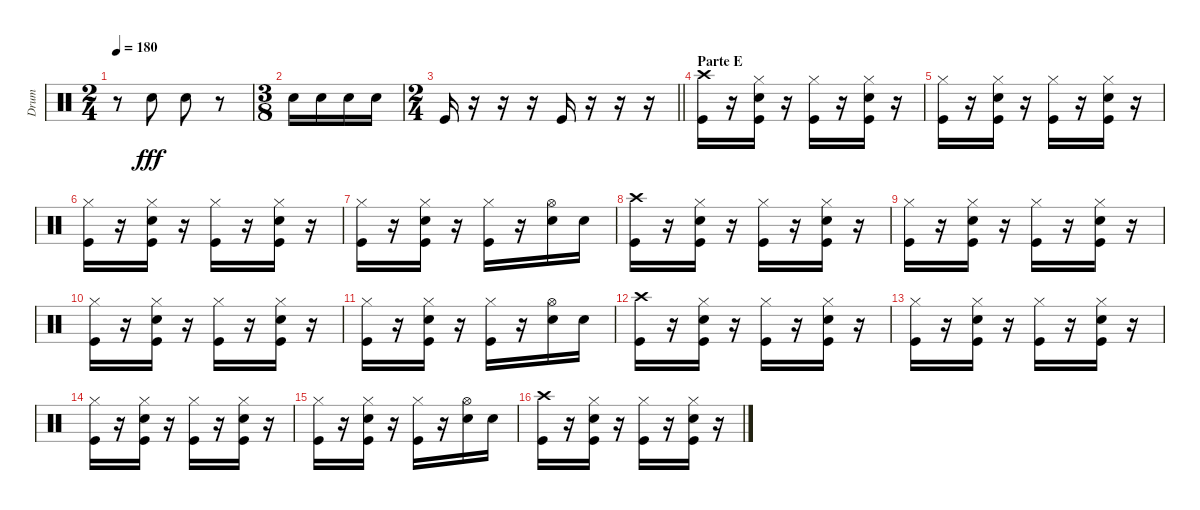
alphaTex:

\track ("Drum" "Drum") {instrument percussion}
\staff {score}
\articulation defaults
\ts (2 4)
\tempo 180
\clef neutral
\ks c
r.8{dy fff} "Snare (hit) 2".8 "Snare (hit) 2".8 r.8 |
\ts (3 8)
"Snare (hit) 2".16 "Snare (hit) 2".16 "Snare (hit) 2".16 "Snare (hit) 2".16 |
\ts (2 4)
\barLineRight lightlight "Kick (hit)".16
r.16 r.16 r.16 "Kick (hit)".16 r.16 r.16 r.16 |
\section ("" "Parte E")
("Crash high (hit)" "Kick (hit)").16 r.16 ("Hi-Hat (closed)" "Snare (hit) 2" "Kick (hit)").16 r.16 ("Hi-Hat (closed)" "Kick (hit)").16 r.16 ("Hi-Hat (closed)" "Snare (hit) 2" "Kick (hit)").16 r.16 |
("Hi-Hat (closed)" "Kick (hit)").16 r.16 ("Hi-Hat (closed)" "Snare (hit) 2" "Kick (hit)").16 r.16 ("Hi-Hat (closed)" "Kick (hit)").16 r.16 ("Hi-Hat (closed)" "Snare (hit) 2" "Kick (hit)").16 r.16 |
("Hi-Hat (closed)" "Kick (hit)").16 r.16 ("Hi-Hat (closed)" "Snare (hit) 2" "Kick (hit)").16 r.16 ("Hi-Hat (closed)" "Kick (hit)").16 r.16 ("Hi-Hat (closed)" "Snare (hit) 2" "Kick (hit)").16 r.16 |
("Hi-Hat (closed)" "Kick (hit)").16 r.16 ("Hi-Hat (closed)" "Snare (hit) 2" "Kick (hit)").16 r.16 ("Hi-Hat (closed)" "Kick (hit)").16 r.16 ("Hi-Hat (open)" "Snare (hit) 2").16 "Snare (hit) 2".16 |
("Crash high (hit)" "Kick (hit)").16 r.16 ("Hi-Hat (closed)" "Snare (hit) 2" "Kick (hit)").16 r.16 ("Hi-Hat (closed)" "Kick (hit)").16 r.16 ("Hi-Hat (closed)" "Snare (hit) 2" "Kick (hit)").16 r.16 |
("Hi-Hat (closed)" "Kick (hit)").16 r.16 ("Hi-Hat (closed)" "Snare (hit) 2" "Kick (hit)").16 r.16 ("Hi-Hat (closed)" "Kick (hit)").16 r.16 ("Hi-Hat (closed)" "Snare (hit) 2" "Kick (hit)").16 r.16 |
("Hi-Hat (closed)" "Kick (hit)").16 r.16 ("Hi-Hat (closed)" "Snare (hit) 2" "Kick (hit)").16 r.16 ("Hi-Hat (closed)" "Kick (hit)").16 r.16 ("Hi-Hat (closed)" "Snare (hit) 2" "Kick (hit)").16 r.16 |
("Hi-Hat (closed)" "Kick (hit)").16 r.16 ("Hi-Hat (closed)" "Snare (hit) 2" "Kick (hit)").16 r.16 ("Hi-Hat (closed)" "Kick (hit)").16 r.16 ("Hi-Hat (open)" "Snare (hit) 2").16 "Snare (hit) 2".16 |
("Crash high (hit)" "Kick (hit)").16 r.16 ("Hi-Hat (closed)" "Snare (hit) 2" "Kick (hit)").16 r.16 ("Hi-Hat (closed)" "Kick (hit)").16 r.16 ("Hi-Hat (closed)" "Snare (hit) 2" "Kick (hit)").16 r.16 |
("Hi-Hat (closed)" "Kick (hit)").16 r.16 ("Hi-Hat (closed)" "Snare (hit) 2" "Kick (hit)").16 r.16 ("Hi-Hat (closed)" "Kick (hit)").16 r.16 ("Hi-Hat (closed)" "Snare (hit) 2" "Kick (hit)").16 r.16 |
("Hi-Hat (closed)" "Kick (hit)").16 r.16 ("Hi-Hat (closed)" "Snare (hit) 2" "Kick (hit)").16 r.16 ("Hi-Hat (closed)" "Kick (hit)").16 r.16 ("Hi-Hat (closed)" "Snare (hit) 2" "Kick (hit)").16 r.16 |
("Hi-Hat (closed)" "Kick (hit)").16 r.16 ("Hi-Hat (closed)" "Snare (hit) 2" "Kick (hit)").16 r.16 ("Hi-Hat (closed)" "Kick (hit)").16 r.16 ("Hi-Hat (open)" "Snare (hit) 2").16 "Snare (hit) 2".16 |
("Crash high (hit)" "Kick (hit)").16 r.16 ("Hi-Hat (closed)" "Snare (hit) 2" "Kick (hit)").16 r.16 ("Hi-Hat (closed)" "Kick (hit)").16 r.16 ("Hi-Hat (closed)" "Snare (hit) 2" "Kick (hit)").16 r.16
